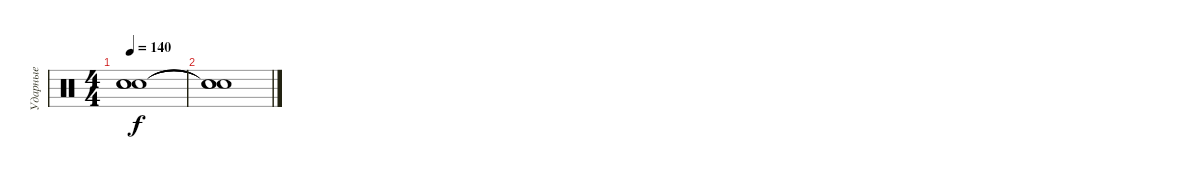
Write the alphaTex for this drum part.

\track ("Ударные" "Ударные") {instrument percussion}
\staff {score}
\articulation defaults
\ts (4 4)
\tempo 140
\clef neutral
\ks c
("Snare (hit)"{t} "Snare (hit)"{t} "Snare (hit)"{t}).1{dy f} |
("Snare (hit)"{t} "Snare (hit)"{t} "Snare (hit)"{t}).1
